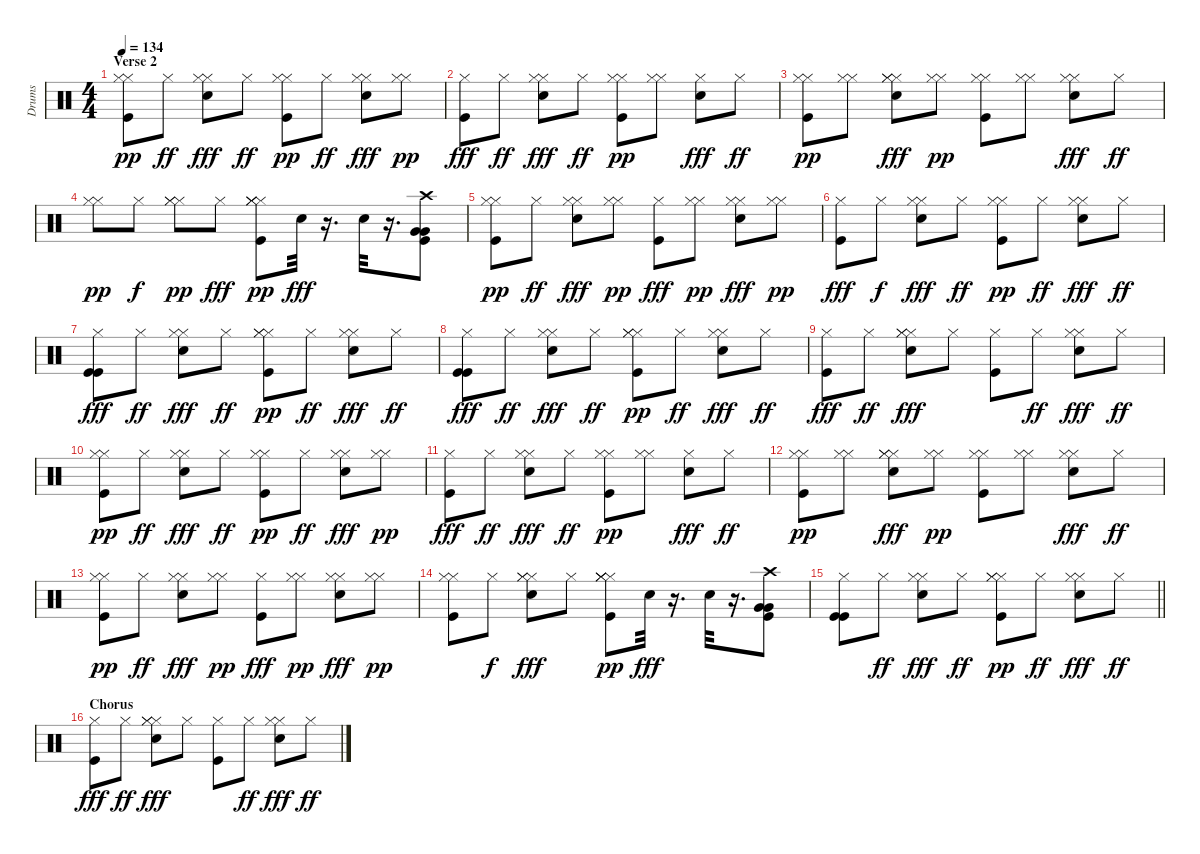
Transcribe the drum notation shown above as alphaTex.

\track ("Drums" "Drums") {instrument percussion}
\staff {score}
\articulation defaults
\ts (4 4)
\section ("" "Verse 2")
\tempo 134
\clef neutral
\ks c
("Hi-Hat (closed)" "Hi-Hat (closed)" "Kick (hit)").8{dy pp} "Hi-Hat (closed)".8{dy ff} ("Hi-Hat (closed)" "Hi-Hat (closed)" "Electric Snare (hit)").8{dy fff} "Hi-Hat (closed)".8{dy ff} ("Hi-Hat (closed)" "Hi-Hat (closed)" "Kick (hit)").8{dy pp} "Hi-Hat (closed)".8{dy ff} ("Hi-Hat (closed)" "Hi-Hat (closed)" "Electric Snare (hit)").8{dy fff} ("Hi-Hat (closed)" "Hi-Hat (closed)").8{dy pp} |
("Hi-Hat (closed)" "Kick (hit)").8{dy fff} "Hi-Hat (closed)".8{dy ff} ("Hi-Hat (closed)" "Hi-Hat (closed)" "Electric Snare (hit)").8{dy fff} "Hi-Hat (closed)".8{dy ff} ("Hi-Hat (closed)" "Hi-Hat (closed)" "Kick (hit)").8{dy pp} ("Hi-Hat (closed)" "Hi-Hat (closed)").8 ("Hi-Hat (closed)" "Electric Snare (hit)").8{dy fff} "Hi-Hat (closed)".8{dy ff} |
("Hi-Hat (closed)" "Hi-Hat (closed)" "Kick (hit)").8{dy pp} ("Hi-Hat (closed)" "Hi-Hat (closed)").8 ("Hi-Hat (closed)" "Hi-Hat (closed)" "Hi-Hat (closed)" "Electric Snare (hit)").8{dy fff} ("Hi-Hat (closed)" "Hi-Hat (closed)").8{dy pp} ("Hi-Hat (closed)" "Hi-Hat (closed)" "Kick (hit)").8 ("Hi-Hat (closed)" "Hi-Hat (closed)").8 ("Hi-Hat (closed)" "Hi-Hat (closed)" "Electric Snare (hit)").8{dy fff} "Hi-Hat (closed)".8{dy ff} |
("Hi-Hat (closed)" "Hi-Hat (closed)").8{dy pp} "Hi-Hat (closed)".8{dy f} ("Hi-Hat (closed)" "Hi-Hat (closed)" "Hi-Hat (closed)").8{dy pp} "Hi-Hat (closed)".8{dy fff} ("Hi-Hat (closed)" "Hi-Hat (closed)" "Hi-Hat (closed)" "Hi-Hat (closed)" "Kick (hit)").8{dy pp} "Electric Snare (hit)".32{dy fff} r.16{d} "Electric Snare (hit)".32 r.16{d} ("Very Low Tom (hit)" "Very Low Tom (hit)" "Crash high (hit)" "Kick (hit)").8 |
("Hi-Hat (closed)" "Hi-Hat (closed)" "Kick (hit)").8{dy pp} "Hi-Hat (closed)".8{dy ff} ("Hi-Hat (closed)" "Hi-Hat (closed)" "Electric Snare (hit)").8{dy fff} ("Hi-Hat (closed)" "Hi-Hat (closed)").8{dy pp} ("Hi-Hat (closed)" "Kick (hit)").8{dy fff} ("Hi-Hat (closed)" "Hi-Hat (closed)").8{dy pp} ("Hi-Hat (closed)" "Hi-Hat (closed)" "Electric Snare (hit)").8{dy fff} ("Hi-Hat (closed)" "Hi-Hat (closed)").8{dy pp} |
("Hi-Hat (closed)" "Kick (hit)").8{dy fff} "Hi-Hat (closed)".8{dy f} ("Hi-Hat (closed)" "Hi-Hat (closed)" "Electric Snare (hit)").8{dy fff} "Hi-Hat (closed)".8{dy ff} ("Hi-Hat (closed)" "Hi-Hat (closed)" "Kick (hit)").8{dy pp} "Hi-Hat (closed)".8{dy ff} ("Hi-Hat (closed)" "Hi-Hat (closed)" "Electric Snare (hit)").8{dy fff} "Hi-Hat (closed)".8{dy ff} |
("Hi-Hat (closed)" "Kick (hit)" "Kick (hit)").8{dy fff} "Hi-Hat (closed)".8{dy ff} ("Hi-Hat (closed)" "Hi-Hat (closed)" "Electric Snare (hit)").8{dy fff} "Hi-Hat (closed)".8{dy ff} ("Hi-Hat (closed)" "Hi-Hat (closed)" "Hi-Hat (closed)" "Kick (hit)").8{dy pp} "Hi-Hat (closed)".8{dy ff} ("Hi-Hat (closed)" "Hi-Hat (closed)" "Electric Snare (hit)").8{dy fff} "Hi-Hat (closed)".8{dy ff} |
("Hi-Hat (closed)" "Kick (hit)" "Kick (hit)").8{dy fff} "Hi-Hat (closed)".8{dy ff} ("Hi-Hat (closed)" "Hi-Hat (closed)" "Electric Snare (hit)").8{dy fff} "Hi-Hat (closed)".8{dy ff} ("Hi-Hat (closed)" "Hi-Hat (closed)" "Hi-Hat (closed)" "Kick (hit)").8{dy pp} "Hi-Hat (closed)".8{dy ff} ("Hi-Hat (closed)" "Hi-Hat (closed)" "Electric Snare (hit)").8{dy fff} "Hi-Hat (closed)".8{dy ff} |
("Hi-Hat (closed)" "Kick (hit)").8{dy fff} "Hi-Hat (closed)".8{dy ff} ("Hi-Hat (closed)" "Hi-Hat (closed)" "Hi-Hat (closed)" "Electric Snare (hit)").8{dy fff} "Hi-Hat (closed)".8 ("Hi-Hat (closed)" "Kick (hit)").8 "Hi-Hat (closed)".8{dy ff} ("Hi-Hat (closed)" "Hi-Hat (closed)" "Electric Snare (hit)").8{dy fff} "Hi-Hat (closed)".8{dy ff} |
("Hi-Hat (closed)" "Hi-Hat (closed)" "Kick (hit)").8{dy pp} "Hi-Hat (closed)".8{dy ff} ("Hi-Hat (closed)" "Hi-Hat (closed)" "Electric Snare (hit)").8{dy fff} "Hi-Hat (closed)".8{dy ff} ("Hi-Hat (closed)" "Hi-Hat (closed)" "Kick (hit)").8{dy pp} "Hi-Hat (closed)".8{dy ff} ("Hi-Hat (closed)" "Hi-Hat (closed)" "Electric Snare (hit)").8{dy fff} ("Hi-Hat (closed)" "Hi-Hat (closed)").8{dy pp} |
("Hi-Hat (closed)" "Kick (hit)").8{dy fff} "Hi-Hat (closed)".8{dy ff} ("Hi-Hat (closed)" "Hi-Hat (closed)" "Electric Snare (hit)").8{dy fff} "Hi-Hat (closed)".8{dy ff} ("Hi-Hat (closed)" "Hi-Hat (closed)" "Kick (hit)").8{dy pp} ("Hi-Hat (closed)" "Hi-Hat (closed)").8 ("Hi-Hat (closed)" "Electric Snare (hit)").8{dy fff} "Hi-Hat (closed)".8{dy ff} |
("Hi-Hat (closed)" "Hi-Hat (closed)" "Kick (hit)").8{dy pp} ("Hi-Hat (closed)" "Hi-Hat (closed)").8 ("Hi-Hat (closed)" "Hi-Hat (closed)" "Hi-Hat (closed)" "Electric Snare (hit)").8{dy fff} ("Hi-Hat (closed)" "Hi-Hat (closed)").8{dy pp} ("Hi-Hat (closed)" "Hi-Hat (closed)" "Kick (hit)").8 ("Hi-Hat (closed)" "Hi-Hat (closed)").8 ("Hi-Hat (closed)" "Hi-Hat (closed)" "Electric Snare (hit)").8{dy fff} "Hi-Hat (closed)".8{dy ff} |
("Hi-Hat (closed)" "Hi-Hat (closed)" "Kick (hit)").8{dy pp} "Hi-Hat (closed)".8{dy ff} ("Hi-Hat (closed)" "Hi-Hat (closed)" "Electric Snare (hit)").8{dy fff} ("Hi-Hat (closed)" "Hi-Hat (closed)").8{dy pp} ("Hi-Hat (closed)" "Kick (hit)").8{dy fff} ("Hi-Hat (closed)" "Hi-Hat (closed)").8{dy pp} ("Hi-Hat (closed)" "Hi-Hat (closed)" "Electric Snare (hit)").8{dy fff} ("Hi-Hat (closed)" "Hi-Hat (closed)").8{dy pp} |
("Hi-Hat (closed)" "Hi-Hat (closed)" "Kick (hit)").8 "Hi-Hat (closed)".8{dy f} ("Hi-Hat (closed)" "Hi-Hat (closed)" "Hi-Hat (closed)" "Electric Snare (hit)").8{dy fff} "Hi-Hat (closed)".8 ("Hi-Hat (closed)" "Hi-Hat (closed)" "Hi-Hat (closed)" "Hi-Hat (closed)" "Kick (hit)").8{dy pp} "Electric Snare (hit)".32{dy fff} r.16{d} "Electric Snare (hit)".32 r.16{d} ("Very Low Tom (hit)" "Very Low Tom (hit)" "Crash high (hit)" "Kick (hit)").8 |
\barLineRight lightlight
("Hi-Hat (closed)" "Kick (hit)" "Kick (hit)").8 "Hi-Hat (closed)".8{dy ff} ("Hi-Hat (closed)" "Hi-Hat (closed)" "Electric Snare (hit)").8{dy fff} "Hi-Hat (closed)".8{dy ff} ("Hi-Hat (closed)" "Hi-Hat (closed)" "Hi-Hat (closed)" "Kick (hit)").8{dy pp} "Hi-Hat (closed)".8{dy ff} ("Hi-Hat (closed)" "Hi-Hat (closed)" "Electric Snare (hit)").8{dy fff} "Hi-Hat (closed)".8{dy ff} |
\section ("" "Chorus")
("Hi-Hat (closed)" "Kick (hit)").8{dy fff} "Hi-Hat (closed)".8{dy ff} ("Hi-Hat (closed)" "Hi-Hat (closed)" "Hi-Hat (closed)" "Electric Snare (hit)").8{dy fff} "Hi-Hat (closed)".8 ("Hi-Hat (closed)" "Kick (hit)").8 "Hi-Hat (closed)".8{dy ff} ("Hi-Hat (closed)" "Hi-Hat (closed)" "Electric Snare (hit)").8{dy fff} "Hi-Hat (closed)".8{dy ff}
